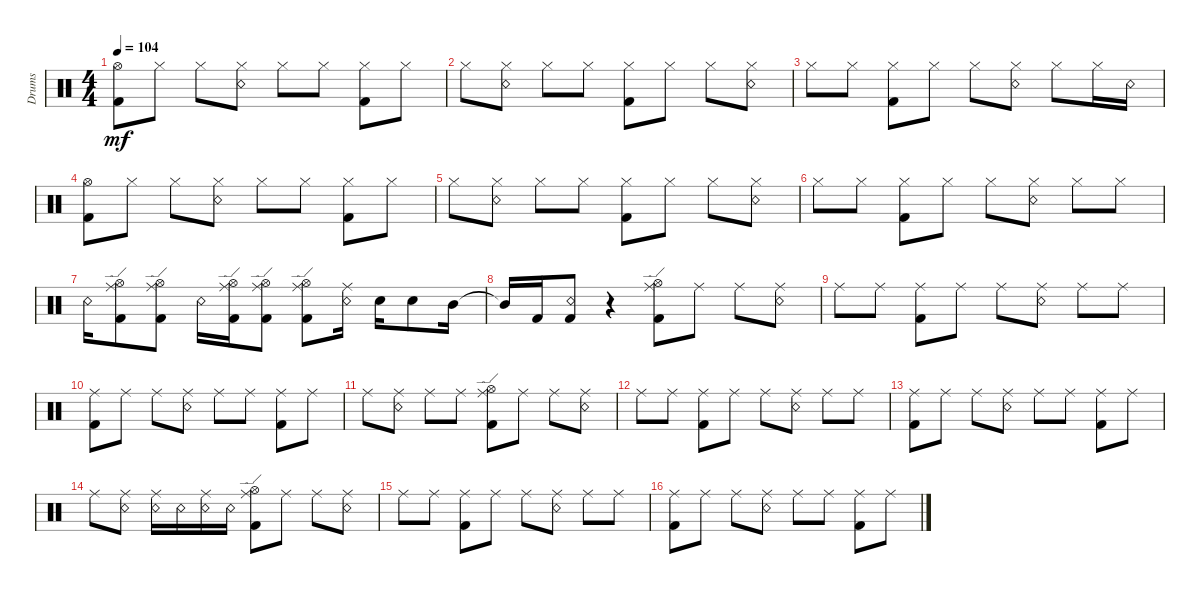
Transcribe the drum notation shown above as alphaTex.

\defaultSystemsLayout 4
\bracketExtendMode groupsimilarinstruments
\otherSystemsTrackNameOrientation horizontal
\track ("Martin Lopez" "Drums") {instrument percussion}
\staff {score}
\articulation defaults
\ts (4 4)
\tempo 104
\clef neutral
\ks c
("Kick (hit) 2" "Hi-Hat (open)").8{dy mf beam Down} "Hi-Hat (closed)".8{beam Down} "Hi-Hat (closed)".8{beam Down} ("Hi-Hat (closed)" "Snare (rim shot)").8{beam Down} "Hi-Hat (closed)".8{beam Down} "Hi-Hat (closed)".8{beam Down} ("Kick (hit) 2" "Hi-Hat (closed)").8{beam Down} "Hi-Hat (closed)".8{beam Down} |
"Hi-Hat (closed)".8{beam Down} ("Hi-Hat (closed)" "Snare (rim shot)").8{beam Down} "Hi-Hat (closed)".8{beam Down} "Hi-Hat (closed)".8{beam Down} ("Kick (hit) 2" "Hi-Hat (closed)").8{beam Down} "Hi-Hat (closed)".8{beam Down} "Hi-Hat (closed)".8{beam Down} ("Hi-Hat (closed)" "Snare (rim shot)").8{beam Down} |
"Hi-Hat (closed)".8{beam Down} "Hi-Hat (closed)".8{beam Down} ("Hi-Hat (closed)" "Kick (hit) 2").8{beam Down} "Hi-Hat (closed)".8{beam Down} "Hi-Hat (closed)".8{beam Down} ("Hi-Hat (closed)" "Snare (rim shot)").8{beam Down} "Hi-Hat (closed)".8{beam Down} "Hi-Hat (closed)".16{beam Down} "Snare (rim shot)".16{beam Down} |
("Kick (hit) 2" "Hi-Hat (open)").8{beam Down} "Hi-Hat (closed)".8{beam Down} "Hi-Hat (closed)".8{beam Down} ("Hi-Hat (closed)" "Snare (rim shot)").8{beam Down} "Hi-Hat (closed)".8{beam Down} "Hi-Hat (closed)".8{beam Down} ("Kick (hit) 2" "Hi-Hat (closed)").8{beam Down} "Hi-Hat (closed)".8{beam Down} |
"Hi-Hat (closed)".8{beam Down} ("Hi-Hat (closed)" "Snare (rim shot)").8{beam Down} "Hi-Hat (closed)".8{beam Down} "Hi-Hat (closed)".8{beam Down} ("Kick (hit) 2" "Hi-Hat (closed)").8{beam Down} "Hi-Hat (closed)".8{beam Down} "Hi-Hat (closed)".8{beam Down} ("Hi-Hat (closed)" "Snare (rim shot)").8{beam Down} |
"Hi-Hat (closed)".8{beam Down} "Hi-Hat (closed)".8{beam Down} ("Hi-Hat (closed)" "Kick (hit) 2").8{beam Down} "Hi-Hat (closed)".8{beam Down} "Hi-Hat (closed)".8{beam Down} ("Hi-Hat (closed)" "Snare (rim shot)").8{beam Down} "Hi-Hat (closed)".8{beam Down} "Hi-Hat (closed)".8{beam Down} |
"Snare (rim shot)".16{beam Down} ("Kick (hit) 2" "Ride (edge)" "Hi-Hat (open)").8{beam Down} ("Kick (hit) 2" "Ride (edge)" "Hi-Hat (open)").8{beam Down} "Snare (rim shot)".16{beam Down} ("Kick (hit) 2" "Ride (edge)" "Hi-Hat (open)").16{beam Down} ("Ride (edge)" "Kick (hit) 2" "Hi-Hat (open)").8{beam Down} ("Kick (hit) 2" "Ride (edge)" "Hi-Hat (open)").8{beam Down} ("Ride (middle)" "Snare (rim shot)").16{beam Down} "Snare (hit) 2".16{beam Down} "Snare (hit) 2".8{beam Down} "Mid Tom (hit)".16{beam Down} |
"Mid Tom (hit)"{t}.16{beam Up} "Kick (hit) 2".16{beam Up} ("Snare (rim shot)" "Kick (hit) 2").8{beam Up} r.4{beam Up} ("Ride (edge)" "Hi-Hat (open)" "Kick (hit) 2").8{beam Down} "Ride (middle)".8{beam Down} "Ride (middle)".8{beam Down} ("Ride (middle)" "Snare (rim shot)").8{beam Down} |
"Ride (middle)".8{beam Down} "Ride (middle)".8{beam Down} ("Ride (middle)" "Kick (hit) 2").8{beam Down} "Ride (middle)".8{beam Down} "Ride (middle)".8{beam Down} ("Ride (middle)" "Snare (rim shot)").8{beam Down} "Ride (middle)".8{beam Down} "Ride (middle)".8{beam Down} |
("Ride (middle)" "Kick (hit) 2").8{beam Down} "Ride (middle)".8{beam Down} "Ride (middle)".8{beam Down} ("Ride (middle)" "Snare (rim shot)").8{beam Down} "Ride (middle)".8{beam Down} "Ride (middle)".8{beam Down} ("Ride (middle)" "Kick (hit) 2").8{beam Down} "Ride (middle)".8{beam Down} |
"Ride (middle)".8{beam Down} ("Ride (middle)" "Snare (rim shot)").8{beam Down} "Ride (middle)".8{beam Down} "Ride (middle)".8{beam Down} ("Ride (edge)" "Hi-Hat (open)" "Kick (hit) 2").8{beam Down} "Ride (middle)".8{beam Down} "Ride (middle)".8{beam Down} ("Ride (middle)" "Snare (rim shot)").8{beam Down} |
"Ride (middle)".8{beam Down} "Ride (middle)".8{beam Down} ("Ride (middle)" "Kick (hit) 2").8{beam Down} "Ride (middle)".8{beam Down} "Ride (middle)".8{beam Down} ("Ride (middle)" "Snare (rim shot)").8{beam Down} "Ride (middle)".8{beam Down} "Ride (middle)".8{beam Down} |
("Ride (middle)" "Kick (hit) 2").8{beam Down} "Ride (middle)".8{beam Down} "Ride (middle)".8{beam Down} ("Ride (middle)" "Snare (rim shot)").8{beam Down} "Ride (middle)".8{beam Down} "Ride (middle)".8{beam Down} ("Ride (middle)" "Kick (hit) 2").8{beam Down} "Ride (middle)".8{beam Down} |
"Ride (middle)".8{beam Down} ("Ride (middle)" "Snare (rim shot)").8{beam Down} ("Ride (middle)" "Snare (rim shot)").16{beam Down} "Snare (rim shot)".16{beam Down} ("Ride (middle)" "Snare (rim shot)").16{beam Down} "Snare (rim shot)".16{beam Down} ("Ride (edge)" "Hi-Hat (open)" "Kick (hit) 2").8{beam Down} "Ride (middle)".8{beam Down} "Ride (middle)".8{beam Down} ("Ride (middle)" "Snare (rim shot)").8{beam Down} |
"Ride (middle)".8{beam Down} "Ride (middle)".8{beam Down} ("Ride (middle)" "Kick (hit) 2").8{beam Down} "Ride (middle)".8{beam Down} "Ride (middle)".8{beam Down} ("Ride (middle)" "Snare (rim shot)").8{beam Down} "Ride (middle)".8{beam Down} "Ride (middle)".8{beam Down} |
("Ride (middle)" "Kick (hit) 2").8{beam Down} "Ride (middle)".8{beam Down} "Ride (middle)".8{beam Down} ("Ride (middle)" "Snare (rim shot)").8{beam Down} "Ride (middle)".8{beam Down} "Ride (middle)".8{beam Down} ("Ride (middle)" "Kick (hit) 2").8{beam Down} "Ride (middle)".8{beam Down}
